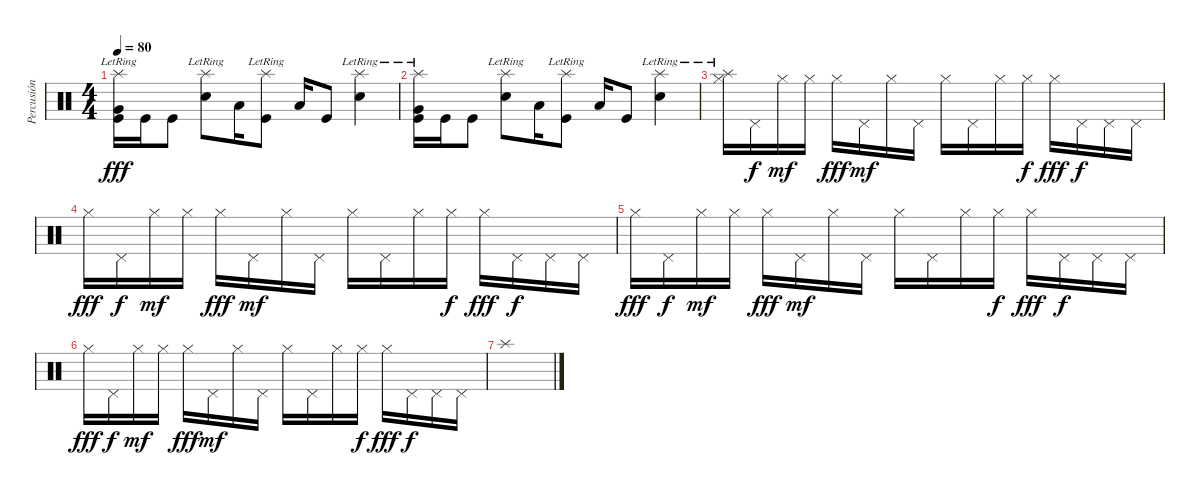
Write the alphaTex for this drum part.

\track ("Percusión" "Percusión") {instrument percussion}
\staff {score}
\articulation defaults
\ts (4 4)
\tempo 80
\clef neutral
\ks c
("Kick (hit)" "Very Low Tom (hit)" "Splash (hit)"{lr}).16{dy fff} "Kick (hit)".16 "Kick (hit)".8 ("Snare (hit) 2" "Splash (hit)"{lr}).8 "Low Floor Tom (hit)".16 ("Kick (hit)" "Splash (hit)"{lr}).8 "Low Floor Tom (hit)".16 "Kick (hit)".8 ("Snare (hit) 2" "Splash (hit)"{lr}).4 |
("Kick (hit)" "Very Low Tom (hit)" "Splash (hit)"{lr}).16 "Kick (hit)".16 "Kick (hit)".8 ("Snare (hit) 2" "Splash (hit)"{lr}).8 "Low Floor Tom (hit)".16 ("Kick (hit)" "Splash (hit)"{lr}).8 "Low Floor Tom (hit)".16 "Kick (hit)".8 ("Snare (hit) 2" "Splash (hit)"{lr}).4 |
("Hi-Hat (closed)" "Splash (hit)"{lr}).16 "Pedal Hi-Hat (hit)".16{dy f} "Hi-Hat (closed)".16{dy mf} "Hi-Hat (closed)".16 "Hi-Hat (closed)".16{dy fff} "Pedal Hi-Hat (hit)".16{dy mf} "Hi-Hat (closed)".16 "Pedal Hi-Hat (hit)".16 "Hi-Hat (closed)".16 "Pedal Hi-Hat (hit)".16 "Hi-Hat (closed)".16 "Hi-Hat (closed)".16{dy f} "Hi-Hat (closed)".16{dy fff} "Pedal Hi-Hat (hit)".16{dy f} "Pedal Hi-Hat (hit)".16 "Pedal Hi-Hat (hit)".16 |
"Hi-Hat (closed)".16{dy fff} "Pedal Hi-Hat (hit)".16{dy f} "Hi-Hat (closed)".16{dy mf} "Hi-Hat (closed)".16 "Hi-Hat (closed)".16{dy fff} "Pedal Hi-Hat (hit)".16{dy mf} "Hi-Hat (closed)".16 "Pedal Hi-Hat (hit)".16 "Hi-Hat (closed)".16 "Pedal Hi-Hat (hit)".16 "Hi-Hat (closed)".16 "Hi-Hat (closed)".16{dy f} "Hi-Hat (closed)".16{dy fff} "Pedal Hi-Hat (hit)".16{dy f} "Pedal Hi-Hat (hit)".16 "Pedal Hi-Hat (hit)".16 |
"Hi-Hat (closed)".16{dy fff} "Pedal Hi-Hat (hit)".16{dy f} "Hi-Hat (closed)".16{dy mf} "Hi-Hat (closed)".16 "Hi-Hat (closed)".16{dy fff} "Pedal Hi-Hat (hit)".16{dy mf} "Hi-Hat (closed)".16 "Pedal Hi-Hat (hit)".16 "Hi-Hat (closed)".16 "Pedal Hi-Hat (hit)".16 "Hi-Hat (closed)".16 "Hi-Hat (closed)".16{dy f} "Hi-Hat (closed)".16{dy fff} "Pedal Hi-Hat (hit)".16{dy f} "Pedal Hi-Hat (hit)".16 "Pedal Hi-Hat (hit)".16 |
"Hi-Hat (closed)".16{dy fff} "Pedal Hi-Hat (hit)".16{dy f} "Hi-Hat (closed)".16{dy mf} "Hi-Hat (closed)".16 "Hi-Hat (closed)".16{dy fff} "Pedal Hi-Hat (hit)".16{dy mf} "Hi-Hat (closed)".16 "Pedal Hi-Hat (hit)".16 "Hi-Hat (closed)".16 "Pedal Hi-Hat (hit)".16 "Hi-Hat (closed)".16 "Hi-Hat (closed)".16{dy f} "Hi-Hat (closed)".16{dy fff} "Pedal Hi-Hat (hit)".16{dy f} "Pedal Hi-Hat (hit)".16 "Pedal Hi-Hat (hit)".16 |
"Splash (hit)".1
